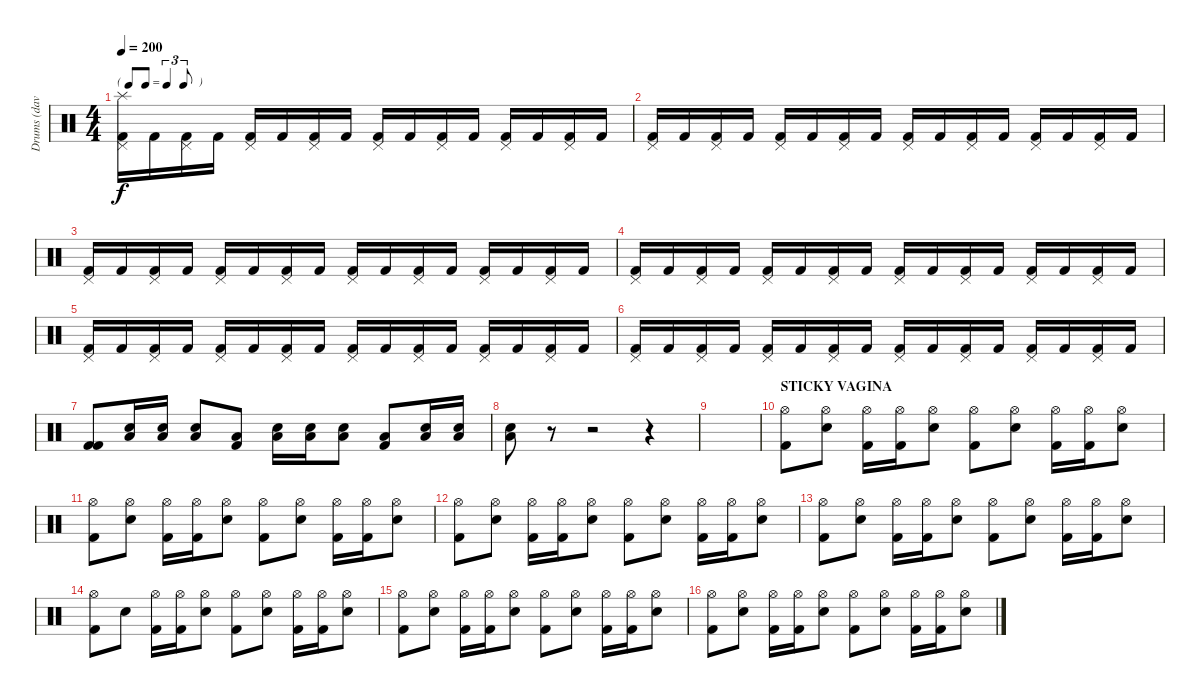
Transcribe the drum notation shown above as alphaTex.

\track ("Drums (dave)" "Drums (dav") {instrument percussion}
\staff {score}
\articulation defaults
\ts (4 4)
\tf triplet8th
\tempo 200
\clef neutral
\ks c
("Splash (hit)" "Pedal Hi-Hat (hit)" "Kick (hit) 2").16{dy f} "Kick (hit) 2".16 ("Pedal Hi-Hat (hit)" "Kick (hit) 2").16 "Kick (hit) 2".16 ("Pedal Hi-Hat (hit)" "Kick (hit) 2").16 "Kick (hit) 2".16 ("Pedal Hi-Hat (hit)" "Kick (hit) 2").16 "Kick (hit) 2".16 ("Pedal Hi-Hat (hit)" "Kick (hit) 2").16 "Kick (hit) 2".16 ("Pedal Hi-Hat (hit)" "Kick (hit) 2").16 "Kick (hit) 2".16 ("Pedal Hi-Hat (hit)" "Kick (hit) 2").16 "Kick (hit) 2".16 ("Pedal Hi-Hat (hit)" "Kick (hit) 2").16 "Kick (hit) 2".16 |
("Pedal Hi-Hat (hit)" "Kick (hit) 2").16 "Kick (hit) 2".16 ("Pedal Hi-Hat (hit)" "Kick (hit) 2").16 "Kick (hit) 2".16 ("Pedal Hi-Hat (hit)" "Kick (hit) 2").16 "Kick (hit) 2".16 ("Pedal Hi-Hat (hit)" "Kick (hit) 2").16 "Kick (hit) 2".16 ("Pedal Hi-Hat (hit)" "Kick (hit) 2").16 "Kick (hit) 2".16 ("Pedal Hi-Hat (hit)" "Kick (hit) 2").16 "Kick (hit) 2".16 ("Pedal Hi-Hat (hit)" "Kick (hit) 2").16 "Kick (hit) 2".16 ("Pedal Hi-Hat (hit)" "Kick (hit) 2").16 "Kick (hit) 2".16 |
("Pedal Hi-Hat (hit)" "Kick (hit) 2").16 "Kick (hit) 2".16 ("Pedal Hi-Hat (hit)" "Kick (hit) 2").16 "Kick (hit) 2".16 ("Pedal Hi-Hat (hit)" "Kick (hit) 2").16 "Kick (hit) 2".16 ("Pedal Hi-Hat (hit)" "Kick (hit) 2").16 "Kick (hit) 2".16 ("Pedal Hi-Hat (hit)" "Kick (hit) 2").16 "Kick (hit) 2".16 ("Pedal Hi-Hat (hit)" "Kick (hit) 2").16 "Kick (hit) 2".16 ("Pedal Hi-Hat (hit)" "Kick (hit) 2").16 "Kick (hit) 2".16 ("Pedal Hi-Hat (hit)" "Kick (hit) 2").16 "Kick (hit) 2".16 |
("Pedal Hi-Hat (hit)" "Kick (hit) 2").16 "Kick (hit) 2".16 ("Pedal Hi-Hat (hit)" "Kick (hit) 2").16 "Kick (hit) 2".16 ("Pedal Hi-Hat (hit)" "Kick (hit) 2").16 "Kick (hit) 2".16 ("Pedal Hi-Hat (hit)" "Kick (hit) 2").16 "Kick (hit) 2".16 ("Pedal Hi-Hat (hit)" "Kick (hit) 2").16 "Kick (hit) 2".16 ("Pedal Hi-Hat (hit)" "Kick (hit) 2").16 "Kick (hit) 2".16 ("Pedal Hi-Hat (hit)" "Kick (hit) 2").16 "Kick (hit) 2".16 ("Pedal Hi-Hat (hit)" "Kick (hit) 2").16 "Kick (hit) 2".16 |
("Pedal Hi-Hat (hit)" "Kick (hit) 2").16 "Kick (hit) 2".16 ("Pedal Hi-Hat (hit)" "Kick (hit) 2").16 "Kick (hit) 2".16 ("Pedal Hi-Hat (hit)" "Kick (hit) 2").16 "Kick (hit) 2".16 ("Pedal Hi-Hat (hit)" "Kick (hit) 2").16 "Kick (hit) 2".16 ("Pedal Hi-Hat (hit)" "Kick (hit) 2").16 "Kick (hit) 2".16 ("Pedal Hi-Hat (hit)" "Kick (hit) 2").16 "Kick (hit) 2".16 ("Pedal Hi-Hat (hit)" "Kick (hit) 2").16 "Kick (hit) 2".16 ("Pedal Hi-Hat (hit)" "Kick (hit) 2").16 "Kick (hit) 2".16 |
("Pedal Hi-Hat (hit)" "Kick (hit) 2").16 "Kick (hit) 2".16 ("Pedal Hi-Hat (hit)" "Kick (hit) 2").16 "Kick (hit) 2".16 ("Pedal Hi-Hat (hit)" "Kick (hit) 2").16 "Kick (hit) 2".16 ("Pedal Hi-Hat (hit)" "Kick (hit) 2").16 "Kick (hit) 2".16 ("Pedal Hi-Hat (hit)" "Kick (hit) 2").16 "Kick (hit) 2".16 ("Pedal Hi-Hat (hit)" "Kick (hit) 2").16 "Kick (hit) 2".16 ("Pedal Hi-Hat (hit)" "Kick (hit) 2").16 "Kick (hit) 2".16 ("Pedal Hi-Hat (hit)" "Kick (hit) 2").16 "Kick (hit) 2".16 |
("Kick (hit) 2" "Kick (hit) 2").8 ("Snare (hit) 2" "Low Floor Tom (hit)").16 ("Snare (hit) 2" "Low Floor Tom (hit)").16 ("Snare (hit) 2" "Low Floor Tom (hit)").8 ("Kick (hit) 2" "Low Floor Tom (hit)").8 ("Snare (hit) 2" "Low Floor Tom (hit)").16 ("Snare (hit) 2" "Low Floor Tom (hit)").16 ("Snare (hit) 2" "Low Floor Tom (hit)").8 ("Kick (hit) 2" "Low Floor Tom (hit)").8 ("Snare (hit) 2" "Low Floor Tom (hit)").16 ("Snare (hit) 2" "Low Floor Tom (hit)").16 |
("Snare (hit) 2" "Low Floor Tom (hit)").8 r.8 r.2 r.4 |
|
\section ("" "STICKY VAGINA")
("Hi-Hat (open)" "Kick (hit) 2").8 ("Hi-Hat (open)" "Snare (hit) 2").8 ("Hi-Hat (open)" "Kick (hit) 2").16 ("Hi-Hat (open)" "Kick (hit) 2").16 ("Hi-Hat (open)" "Snare (hit) 2").8 ("Hi-Hat (open)" "Kick (hit) 2").8 ("Hi-Hat (open)" "Snare (hit) 2").8 ("Hi-Hat (open)" "Kick (hit) 2").16 ("Hi-Hat (open)" "Kick (hit) 2").16 ("Hi-Hat (open)" "Snare (hit) 2").8 |
("Hi-Hat (open)" "Kick (hit) 2").8 ("Hi-Hat (open)" "Snare (hit) 2").8 ("Hi-Hat (open)" "Kick (hit) 2").16 ("Hi-Hat (open)" "Kick (hit) 2").16 ("Hi-Hat (open)" "Snare (hit) 2").8 ("Hi-Hat (open)" "Kick (hit) 2").8 ("Hi-Hat (open)" "Snare (hit) 2").8 ("Hi-Hat (open)" "Kick (hit) 2").16 ("Hi-Hat (open)" "Kick (hit) 2").16 ("Hi-Hat (open)" "Snare (hit) 2").8 |
("Hi-Hat (open)" "Kick (hit) 2").8 ("Hi-Hat (open)" "Snare (hit) 2").8 ("Hi-Hat (open)" "Kick (hit) 2").16 ("Hi-Hat (open)" "Kick (hit) 2").16 ("Hi-Hat (open)" "Snare (hit) 2").8 ("Hi-Hat (open)" "Kick (hit) 2").8 ("Hi-Hat (open)" "Snare (hit) 2").8 ("Hi-Hat (open)" "Kick (hit) 2").16 ("Hi-Hat (open)" "Kick (hit) 2").16 ("Hi-Hat (open)" "Snare (hit) 2").8 |
("Hi-Hat (open)" "Kick (hit) 2").8 ("Hi-Hat (open)" "Snare (hit) 2").8 ("Hi-Hat (open)" "Kick (hit) 2").16 ("Hi-Hat (open)" "Kick (hit) 2").16 ("Hi-Hat (open)" "Snare (hit) 2").8 ("Hi-Hat (open)" "Kick (hit) 2").8 ("Hi-Hat (open)" "Snare (hit) 2").8 ("Hi-Hat (open)" "Kick (hit) 2").16 ("Hi-Hat (open)" "Kick (hit) 2").16 ("Hi-Hat (open)" "Snare (hit) 2").8 |
("Hi-Hat (open)" "Kick (hit) 2").8 "Snare (hit) 2".8 ("Hi-Hat (open)" "Kick (hit) 2").16 ("Hi-Hat (open)" "Kick (hit) 2").16 ("Hi-Hat (open)" "Snare (hit) 2").8 ("Hi-Hat (open)" "Kick (hit) 2").8 ("Hi-Hat (open)" "Snare (hit) 2").8 ("Hi-Hat (open)" "Kick (hit) 2").16 ("Hi-Hat (open)" "Kick (hit) 2").16 ("Hi-Hat (open)" "Snare (hit) 2").8 |
("Hi-Hat (open)" "Kick (hit) 2").8 ("Hi-Hat (open)" "Snare (hit) 2").8 ("Hi-Hat (open)" "Kick (hit) 2").16 ("Hi-Hat (open)" "Kick (hit) 2").16 ("Hi-Hat (open)" "Snare (hit) 2").8 ("Hi-Hat (open)" "Kick (hit) 2").8 ("Hi-Hat (open)" "Snare (hit) 2").8 ("Hi-Hat (open)" "Kick (hit) 2").16 ("Hi-Hat (open)" "Kick (hit) 2").16 ("Hi-Hat (open)" "Snare (hit) 2").8 |
("Hi-Hat (open)" "Kick (hit) 2").8 ("Hi-Hat (open)" "Snare (hit) 2").8 ("Hi-Hat (open)" "Kick (hit) 2").16 ("Hi-Hat (open)" "Kick (hit) 2").16 ("Hi-Hat (open)" "Snare (hit) 2").8 ("Hi-Hat (open)" "Kick (hit) 2").8 ("Hi-Hat (open)" "Snare (hit) 2").8 ("Hi-Hat (open)" "Kick (hit) 2").16 ("Hi-Hat (open)" "Kick (hit) 2").16 ("Hi-Hat (open)" "Snare (hit) 2").8
